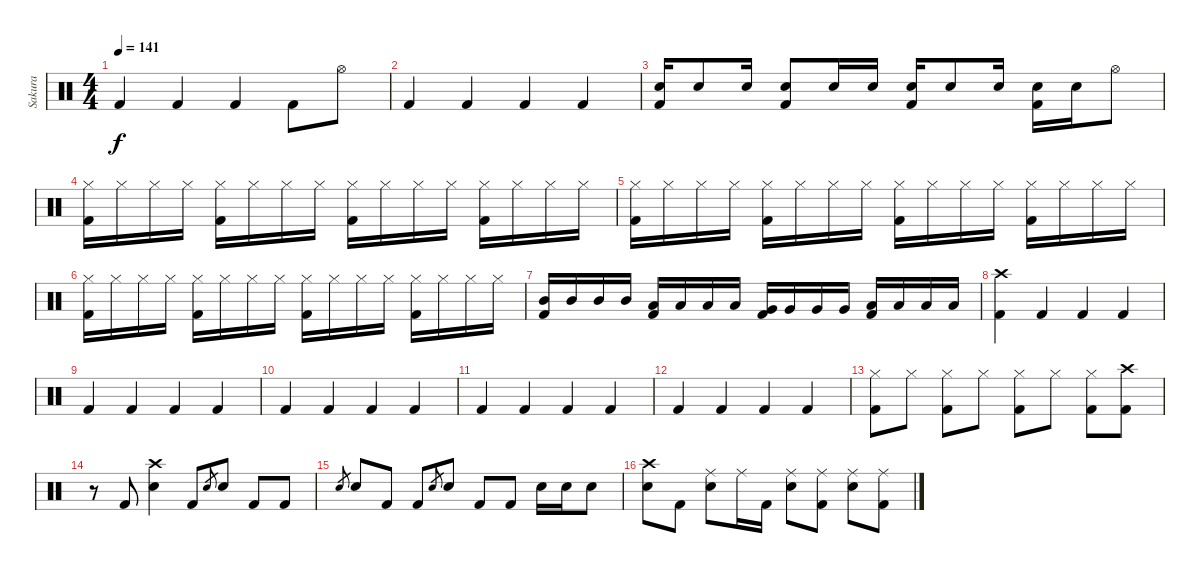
\track ("Sakura" "Sakura") {instrument percussion}
\staff {score}
\articulation defaults
\ts (4 4)
\tempo 141
\clef neutral
\ks c "Kick (hit) 2".4{dy f} "Kick (hit) 2".4 "Kick (hit) 2".4 "Kick (hit) 2".8 "Hi-Hat (open)".8
|
"Kick (hit) 2".4 "Kick (hit) 2".4 "Kick (hit) 2".4 "Kick (hit) 2".4 |
("Snare (hit) 2" "Kick (hit) 2").16 "Snare (hit) 2".8 "Snare (hit) 2".16 ("Snare (hit) 2" "Kick (hit) 2").8 "Snare (hit) 2".16 "Snare (hit) 2".16 ("Snare (hit) 2" "Kick (hit) 2").16 "Snare (hit) 2".8 "Snare (hit) 2".16 ("Snare (hit) 2" "Kick (hit) 2").16 "Snare (hit) 2".16 "Hi-Hat (open)".8 |
("Hi-Hat (closed)" "Kick (hit) 2").16 "Hi-Hat (closed)".16 "Hi-Hat (closed)".16 "Hi-Hat (closed)".16 ("Hi-Hat (closed)" "Kick (hit) 2").16 "Hi-Hat (closed)".16 "Hi-Hat (closed)".16 "Hi-Hat (closed)".16 ("Hi-Hat (closed)" "Kick (hit) 2").16 "Hi-Hat (closed)".16 "Hi-Hat (closed)".16 "Hi-Hat (closed)".16 ("Hi-Hat (closed)" "Kick (hit) 2").16 "Hi-Hat (closed)".16 "Hi-Hat (closed)".16 "Hi-Hat (closed)".16 |
("Hi-Hat (closed)" "Kick (hit) 2").16 "Hi-Hat (closed)".16 "Hi-Hat (closed)".16 "Hi-Hat (closed)".16 ("Hi-Hat (closed)" "Kick (hit) 2").16 "Hi-Hat (closed)".16 "Hi-Hat (closed)".16 "Hi-Hat (closed)".16 ("Hi-Hat (closed)" "Kick (hit) 2").16 "Hi-Hat (closed)".16 "Hi-Hat (closed)".16 "Hi-Hat (closed)".16 ("Hi-Hat (closed)" "Kick (hit) 2").16 "Hi-Hat (closed)".16 "Hi-Hat (closed)".16 "Hi-Hat (closed)".16 |
("Hi-Hat (closed)" "Kick (hit) 2").16 "Hi-Hat (closed)".16 "Hi-Hat (closed)".16 "Hi-Hat (closed)".16 ("Hi-Hat (closed)" "Kick (hit) 2").16 "Hi-Hat (closed)".16 "Hi-Hat (closed)".16 "Hi-Hat (closed)".16 ("Hi-Hat (closed)" "Kick (hit) 2").16 "Hi-Hat (closed)".16 "Hi-Hat (closed)".16 "Hi-Hat (closed)".16 ("Hi-Hat (closed)" "Kick (hit) 2").16 "Hi-Hat (closed)".16 "Hi-Hat (closed)".16 "Hi-Hat (closed)".16 |
("Mid Tom (hit)" "Kick (hit) 2").16 "Mid Tom (hit)".16 "Mid Tom (hit)".16 "Mid Tom (hit)".16 ("Low Tom (hit)" "Kick (hit) 2").16 "Low Tom (hit)".16 "Low Tom (hit)".16 "Low Tom (hit)".16 ("Very Low Tom (hit)" "Kick (hit) 2").16 "Very Low Tom (hit)".16 "Very Low Tom (hit)".16 "Very Low Tom (hit)".16 ("Low Floor Tom (hit)" "Kick (hit) 2").16 "Low Floor Tom (hit)".16 "Low Floor Tom (hit)".16 "Low Floor Tom (hit)".16 |
("Crash high (hit)" "Kick (hit) 2").4 "Kick (hit) 2".4 "Kick (hit) 2".4 "Kick (hit) 2".4 |
"Kick (hit) 2".4 "Kick (hit) 2".4 "Kick (hit) 2".4 "Kick (hit) 2".4 |
"Kick (hit) 2".4 "Kick (hit) 2".4 "Kick (hit) 2".4 "Kick (hit) 2".4 |
"Kick (hit) 2".4 "Kick (hit) 2".4 "Kick (hit) 2".4 "Kick (hit) 2".4 |
"Kick (hit) 2".4 "Kick (hit) 2".4 "Kick (hit) 2".4 "Kick (hit) 2".4 |
("Hi-Hat (closed)" "Kick (hit) 2").8 "Hi-Hat (closed)".8 ("Hi-Hat (closed)" "Kick (hit) 2").8 "Hi-Hat (closed)".8 ("Hi-Hat (closed)" "Kick (hit) 2").8 "Hi-Hat (closed)".8 ("Hi-Hat (closed)" "Kick (hit) 2").8 ("Crash high (hit)" "Kick (hit) 2").8 |
r.8 "Kick (hit) 2".8 ("Crash high (hit)" "Snare (hit) 2").4 "Kick (hit) 2".8 "Snare (hit) 2".8{gr} "Snare (hit) 2".8 "Kick (hit) 2".8 "Kick (hit) 2".8 |
"Snare (hit) 2".8{gr} "Snare (hit) 2".8 "Kick (hit) 2".8 "Kick (hit) 2".8 "Snare (hit) 2".8{gr} "Snare (hit) 2".8 "Kick (hit) 2".8 "Kick (hit) 2".8 "Snare (hit) 2".16 "Snare (hit) 2".16 "Snare (hit) 2".8 |
("Crash high (hit)" "Snare (hit) 2").8 "Kick (hit) 2".8 ("Ride (middle)" "Snare (hit) 2").8 "Ride (middle)".16 "Kick (hit) 2".16 ("Ride (middle)" "Snare (hit) 2").8 ("Ride (middle)" "Kick (hit) 2").8 ("Ride (middle)" "Snare (hit) 2").8 ("Ride (middle)" "Kick (hit) 2").8
